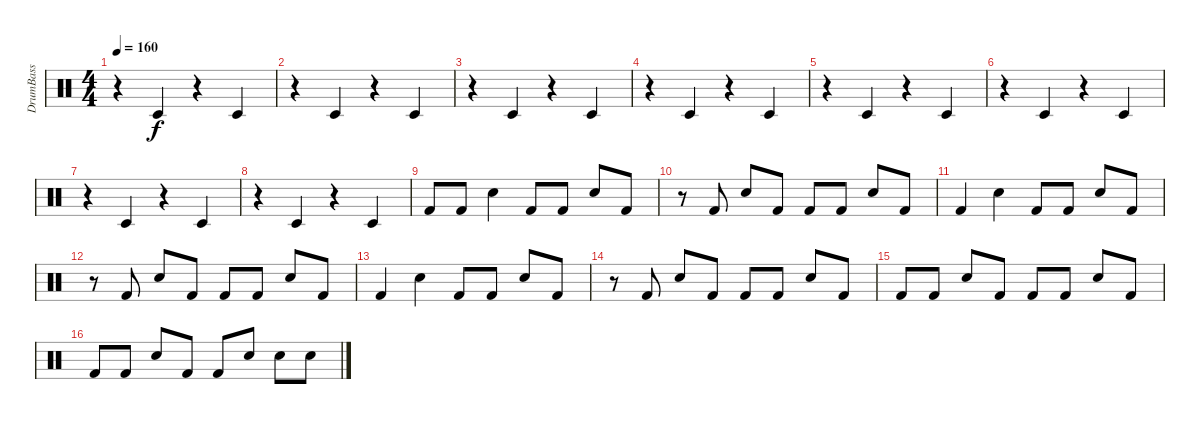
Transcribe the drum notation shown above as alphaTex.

\track ("DrumBass" "DrumBass") {instrument percussion}
\staff {score}
\articulation defaults
\ts (4 4)
\tempo 160
\clef neutral
\ks c
r.4{dy f} "Timbale low (hit)".4 r.4 "Timbale low (hit)".4 |
r.4 "Timbale low (hit)".4 r.4 "Timbale low (hit)".4 |
r.4 "Timbale low (hit)".4 r.4 "Timbale low (hit)".4 |
r.4 "Timbale low (hit)".4 r.4 "Timbale low (hit)".4 |
r.4 "Timbale low (hit)".4 r.4 "Timbale low (hit)".4 |
r.4 "Timbale low (hit)".4 r.4 "Timbale low (hit)".4 |
r.4 "Timbale low (hit)".4 r.4 "Timbale low (hit)".4 |
r.4 "Timbale low (hit)".4 r.4 "Timbale low (hit)".4 |
"Kick (hit) 2".8 "Kick (hit) 2".8 "Snare (hit) 2".4 "Kick (hit) 2".8 "Kick (hit) 2".8 "Snare (hit) 2".8 "Kick (hit) 2".8 |
r.8 "Kick (hit) 2".8 "Snare (hit) 2".8 "Kick (hit) 2".8 "Kick (hit) 2".8 "Kick (hit) 2".8 "Snare (hit) 2".8 "Kick (hit) 2".8 |
"Kick (hit) 2".4 "Snare (hit) 2".4 "Kick (hit) 2".8 "Kick (hit) 2".8 "Snare (hit) 2".8 "Kick (hit) 2".8 |
r.8 "Kick (hit) 2".8 "Snare (hit) 2".8 "Kick (hit) 2".8 "Kick (hit) 2".8 "Kick (hit) 2".8 "Snare (hit) 2".8 "Kick (hit) 2".8 |
"Kick (hit) 2".4 "Snare (hit) 2".4 "Kick (hit) 2".8 "Kick (hit) 2".8 "Snare (hit) 2".8 "Kick (hit) 2".8 |
r.8 "Kick (hit) 2".8 "Snare (hit) 2".8 "Kick (hit) 2".8 "Kick (hit) 2".8 "Kick (hit) 2".8 "Snare (hit) 2".8 "Kick (hit) 2".8 |
"Kick (hit) 2".8 "Kick (hit) 2".8 "Snare (hit) 2".8 "Kick (hit) 2".8 "Kick (hit) 2".8 "Kick (hit) 2".8 "Snare (hit) 2".8 "Kick (hit) 2".8 |
"Kick (hit) 2".8 "Kick (hit) 2".8 "Snare (hit) 2".8 "Kick (hit) 2".8 "Kick (hit) 2".8 "Snare (hit) 2"{tr (38 16)}.8 "Snare (hit) 2"{tr (38 16)}.8 "Snare (hit) 2"{tr (38 16)}.8
